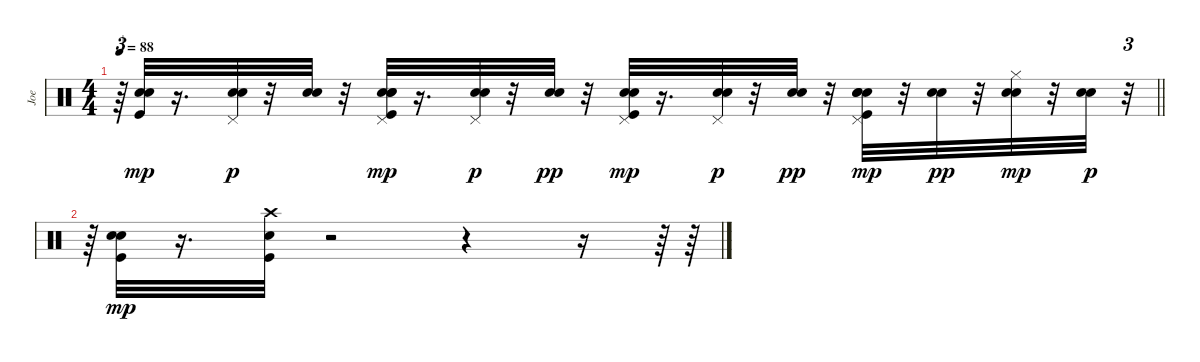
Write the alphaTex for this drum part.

\track ("Joe" "Joe") {instrument percussion}
\staff {score}
\articulation defaults
\ts (4 4)
\tempo 88
\clef neutral
\barLineRight lightlight
\ks c
r.64{tu (3 2) dy pp} ("Kick (hit)" "Snare (hit) 2" "Snare (hit) 2").32{dy mp} r.16{d} ("Pedal Hi-Hat (hit)" "Snare (hit) 2" "Snare (hit) 2").32{dy p} r.32 ("Snare (hit) 2" "Snare (hit) 2").32 r.32 ("Pedal Hi-Hat (hit)" "Kick (hit)" "Electric Snare (hit)" "Snare (hit) 2" "Snare (hit) 2").32{dy mp} r.16{d} ("Pedal Hi-Hat (hit)" "Snare (hit) 2" "Snare (hit) 2").32{dy p} r.32 ("Snare (hit) 2" "Snare (hit) 2").32{dy pp} r.32 ("Kick (hit)" "Pedal Hi-Hat (hit)" "Snare (hit) 2" "Snare (hit) 2").32{dy mp} r.16{d} ("Pedal Hi-Hat (hit)" "Snare (hit) 2" "Snare (hit) 2").32{dy p} r.32 ("Snare (hit) 2" "Snare (hit) 2").32{dy pp} r.32 ("Kick (hit)" "Electric Snare (hit)" "Pedal Hi-Hat (hit)" "Snare (hit) 2" "Snare (hit) 2").32{dy mp} r.32 ("Snare (hit) 2" "Snare (hit) 2").32{dy pp} r.32 ("Hi-Hat (closed)" "Snare (hit) 2" "Snare (hit) 2").32{dy mp} r.32 ("Snare (hit) 2" "Snare (hit) 2").32{dy p} r.32{tu (3 2)} |
r.64{tu (3 2)} ("Kick (hit)" "Snare (hit) 2" "Snare (hit) 2").32{dy mp} r.16{d} ("Kick (hit)" "Crash high (hit)" "Snare (hit) 2").32 r.2 r.4 r.16 r.64{tu (3 2)} r.64{tu (3 2)}
